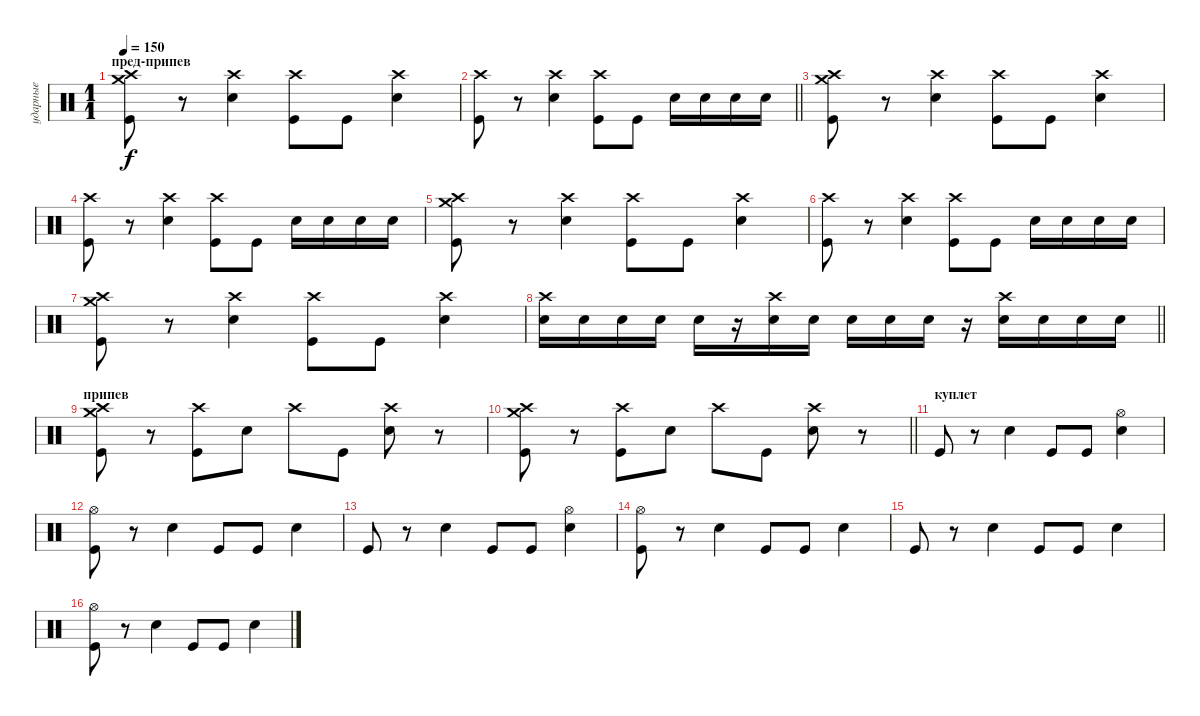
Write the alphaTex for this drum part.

\track ("ударные" "ударные") {instrument percussion}
\staff {score}
\articulation defaults
\ts (1 1)
\section ("" "пред-припев")
\tempo 150
\clef neutral
\ks c
("Crash high (hit)" "Crash medium (hit)" "Kick (hit)").8{dy f} r.8 ("Crash high (hit)" "Snare (hit) 2").4 ("Crash high (hit)" "Kick (hit)").8 "Kick (hit)".8 ("Crash high (hit)" "Snare (hit) 2").4 |
\barLineRight lightlight
("Crash high (hit)" "Kick (hit)").8 r.8 ("Crash high (hit)" "Snare (hit) 2").4 ("Crash high (hit)" "Kick (hit)").8 "Kick (hit)".8 "Snare (hit) 2".16 "Snare (hit) 2".16 "Snare (hit) 2".16 "Snare (hit) 2".16 |
("Crash high (hit)" "Crash medium (hit)" "Kick (hit)").8 r.8 ("Crash high (hit)" "Snare (hit) 2").4 ("Crash high (hit)" "Kick (hit)").8 "Kick (hit)".8 ("Crash high (hit)" "Snare (hit) 2").4 |
("Crash high (hit)" "Kick (hit)").8 r.8 ("Crash high (hit)" "Snare (hit) 2").4 ("Crash high (hit)" "Kick (hit)").8 "Kick (hit)".8 "Snare (hit) 2".16 "Snare (hit) 2".16 "Snare (hit) 2".16 "Snare (hit) 2".16 |
("Crash high (hit)" "Crash medium (hit)" "Kick (hit)").8 r.8 ("Crash high (hit)" "Snare (hit) 2").4 ("Crash high (hit)" "Kick (hit)").8 "Kick (hit)".8 ("Crash high (hit)" "Snare (hit) 2").4 |
("Crash high (hit)" "Kick (hit)").8 r.8 ("Crash high (hit)" "Snare (hit) 2").4 ("Crash high (hit)" "Kick (hit)").8 "Kick (hit)".8 "Snare (hit) 2".16 "Snare (hit) 2".16 "Snare (hit) 2".16 "Snare (hit) 2".16 |
("Crash high (hit)" "Crash medium (hit)" "Kick (hit)").8 r.8 ("Crash high (hit)" "Snare (hit) 2").4 ("Crash high (hit)" "Kick (hit)").8 "Kick (hit)".8 ("Crash high (hit)" "Snare (hit) 2").4 |
\barLineRight lightlight
("Crash high (hit)" "Snare (hit) 2").16 "Snare (hit) 2".16 "Snare (hit) 2".16 "Snare (hit) 2".16 "Snare (hit) 2".16 r.16 ("Crash high (hit)" "Snare (hit) 2").16 "Snare (hit) 2".16 "Snare (hit) 2".16 "Snare (hit) 2".16 "Snare (hit) 2".16 r.16 ("Crash high (hit)" "Snare (hit) 2").16 "Snare (hit) 2".16 "Snare (hit) 2".16 "Snare (hit) 2".16 |
\section ("" "припев")
("Crash high (hit)" "Crash medium (hit)" "Kick (hit)").8 r.8 ("Crash high (hit)" "Kick (hit)").8 "Snare (hit) 2".8 "Crash high (hit)".8 "Kick (hit)".8 ("Crash high (hit)" "Snare (hit) 2").8 r.8 |
\barLineRight lightlight
("Crash high (hit)" "Crash medium (hit)" "Kick (hit)").8 r.8 ("Crash high (hit)" "Kick (hit)").8 "Snare (hit) 2".8 "Crash high (hit)".8 "Kick (hit)".8 ("Crash high (hit)" "Snare (hit) 2").8 r.8 |
\section ("" "куплет")
"Kick (hit)".8 r.8 "Snare (hit) 2".4 "Kick (hit)".8 "Kick (hit)".8 ("Hi-Hat (open)" "Snare (hit) 2").4 |
("Hi-Hat (open)" "Kick (hit)").8 r.8 "Snare (hit) 2".4 "Kick (hit)".8 "Kick (hit)".8 "Snare (hit) 2".4 |
"Kick (hit)".8 r.8 "Snare (hit) 2".4 "Kick (hit)".8 "Kick (hit)".8 ("Hi-Hat (open)" "Snare (hit) 2").4 |
("Hi-Hat (open)" "Kick (hit)").8 r.8 "Snare (hit) 2".4 "Kick (hit)".8 "Kick (hit)".8 "Snare (hit) 2".4 |
"Kick (hit)".8 r.8 "Snare (hit) 2".4 "Kick (hit)".8 "Kick (hit)".8 "Snare (hit) 2".4 |
("Hi-Hat (open)" "Kick (hit)").8 r.8 "Snare (hit) 2".4 "Kick (hit)".8 "Kick (hit)".8 "Snare (hit) 2".4
